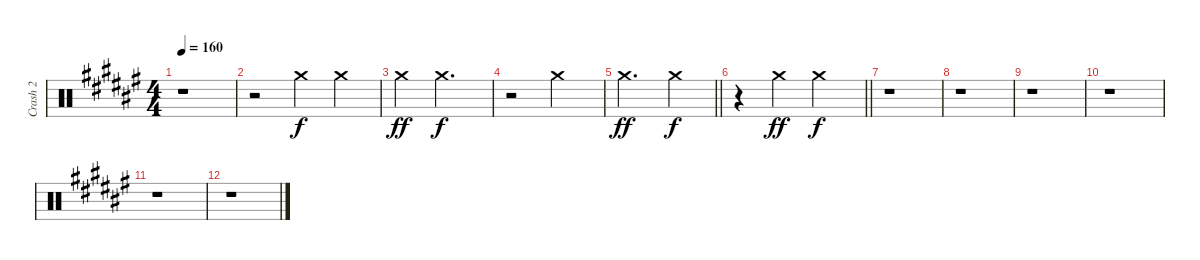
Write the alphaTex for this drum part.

\track ("Crash 2" "Crash 2") {instrument percussion}
\staff {score}
\articulation defaults
\ts (4 4)
\tempo 160
\clef neutral
\ks d#minor
r.1{dy ff} |
r.2 "Crash medium (hit)".4{dy f} "Crash medium (hit)".4 |
"Crash medium (hit)".4{dy ff} "Crash medium (hit)".2{d dy f} |
r.2 "Crash medium (hit)".2 |
\barLineRight lightlight "Crash medium (hit)".2{d dy ff} "Crash medium (hit)".4{dy f}
|
\barLineRight lightlight
r.4 "Crash medium (hit)".4{dy ff} "Crash medium (hit)".2{dy f} |
r.1 |
r.1 |
r.1 |
r.1 |
r.1 |
r.1
